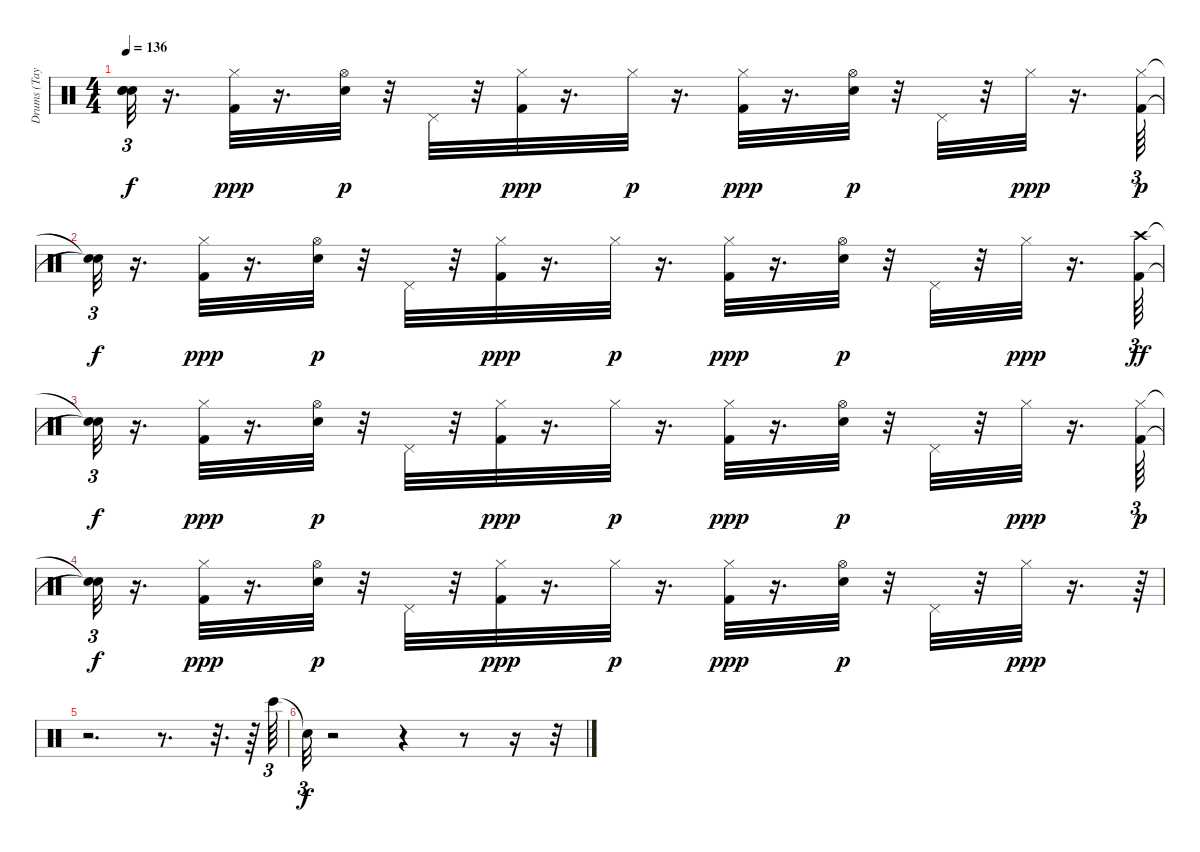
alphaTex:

\track ("Drums (Taylor)" "Drums (Tay") {instrument percussion}
\staff {score}
\articulation defaults
\ts (4 4)
\tempo 136
\clef neutral
\ks c
("Snare (hit)"{t} "Snare (hit)"{t} "Snare (hit)"{t}).32{tu (3 2) dy f} r.16{d} ("Kick (hit) 2" "Hi-Hat (closed)").32{dy ppp} r.16{d} ("Snare (hit) 2" "Hi-Hat (open)").32{dy p} r.32 "Pedal Hi-Hat (hit)".32 r.32 ("Kick (hit) 2" "Hi-Hat (closed)").32{dy ppp} r.16{d} "Hi-Hat (closed)".32{dy p} r.16{d} ("Kick (hit) 2" "Hi-Hat (closed)").32{dy ppp} r.16{d} ("Snare (hit) 2" "Hi-Hat (open)").32{dy p} r.32 "Pedal Hi-Hat (hit)".32 r.32 "Hi-Hat (closed)".32{dy ppp} r.16{d} ("Kick (hit) 2" "Hi-Hat (closed)").64{tu (3 2) dy p} |
("Snare (hit)"{t} "Snare (hit)"{t}).32{tu (3 2) dy f} r.16{d} ("Kick (hit) 2" "Hi-Hat (closed)").32{dy ppp} r.16{d} ("Snare (hit) 2" "Hi-Hat (open)").32{dy p} r.32 "Pedal Hi-Hat (hit)".32 r.32 ("Kick (hit) 2" "Hi-Hat (closed)").32{dy ppp} r.16{d} "Hi-Hat (closed)".32{dy p} r.16{d} ("Kick (hit) 2" "Hi-Hat (closed)").32{dy ppp} r.16{d} ("Snare (hit) 2" "Hi-Hat (open)").32{dy p} r.32 "Pedal Hi-Hat (hit)".32 r.32 "Hi-Hat (closed)".32{dy ppp} r.16{d} ("Kick (hit) 2" "Crash high (hit)").64{tu (3 2) dy ff} |
("Snare (hit)"{t} "Snare (hit)"{t}).32{tu (3 2) dy f} r.16{d} ("Kick (hit) 2" "Hi-Hat (closed)").32{dy ppp} r.16{d} ("Snare (hit) 2" "Hi-Hat (open)").32{dy p} r.32 "Pedal Hi-Hat (hit)".32 r.32 ("Kick (hit) 2" "Hi-Hat (closed)").32{dy ppp} r.16{d} "Hi-Hat (closed)".32{dy p} r.16{d} ("Kick (hit) 2" "Hi-Hat (closed)").32{dy ppp} r.16{d} ("Snare (hit) 2" "Hi-Hat (open)").32{dy p} r.32 "Pedal Hi-Hat (hit)".32 r.32 "Hi-Hat (closed)".32{dy ppp} r.16{d} ("Kick (hit) 2" "Hi-Hat (closed)").64{tu (3 2) dy p} |
("Snare (hit)"{t} "Snare (hit)"{t}).32{tu (3 2) dy f} r.16{d} ("Kick (hit) 2" "Hi-Hat (closed)").32{dy ppp} r.16{d} ("Snare (hit) 2" "Hi-Hat (open)").32{dy p} r.32 "Pedal Hi-Hat (hit)".32 r.32 ("Kick (hit) 2" "Hi-Hat (closed)").32{dy ppp} r.16{d} "Hi-Hat (closed)".32{dy p} r.16{d} ("Kick (hit) 2" "Hi-Hat (closed)").32{dy ppp} r.16{d} ("Snare (hit) 2" "Hi-Hat (open)").32{dy p} r.32 "Pedal Hi-Hat (hit)".32 r.32 "Hi-Hat (closed)".32{dy ppp} r.16{d} r.64{tu (3 2)} |
r.2{d} r.8{d} r.32{d} r.64 "Bongo High (hit)".64{tu (3 2)} |
"Snare (hit)"{t}.32{tu (3 2) dy f} r.2 r.4 r.8 r.16 r.32
